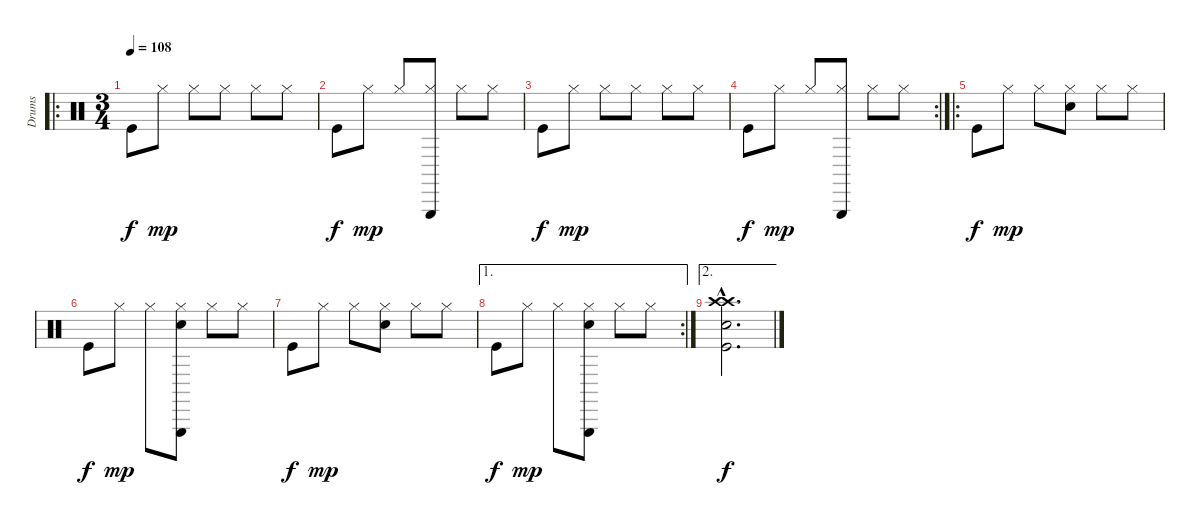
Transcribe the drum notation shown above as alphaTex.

\track ("Drums" "Drums") {instrument percussion}
\staff {score}
\articulation defaults
\ro
\ts (3 4)
\tempo 108
\clef neutral
\ks c "Kick (hit)".8{dy f} "Hi-Hat (closed)".8{dy mp} "Hi-Hat (closed)".8 "Hi-Hat (closed)".8 "Hi-Hat (closed)".8 "Hi-Hat (closed)".8
|
"Kick (hit)".8{dy f} "Hi-Hat (closed)".8{dy mp} "Hi-Hat (closed)".8 ("Hi-Hat (closed)" "Triangle (hit)").8 "Hi-Hat (closed)".8 "Hi-Hat (closed)".8 |
"Kick (hit)".8{dy f} "Hi-Hat (closed)".8{dy mp} "Hi-Hat (closed)".8 "Hi-Hat (closed)".8 "Hi-Hat (closed)".8 "Hi-Hat (closed)".8 |
\rc 2 "Kick (hit)".8{dy f} "Hi-Hat (closed)".8{dy mp} "Hi-Hat (closed)".8
("Hi-Hat (closed)" "Triangle (hit)").8 "Hi-Hat (closed)".8 "Hi-Hat (closed)".8 |
\ro "Kick (hit)".8{dy f} "Hi-Hat (closed)".8{dy mp} "Hi-Hat (closed)".8
("Hi-Hat (closed)" "Snare (hit) 2").8 "Hi-Hat (closed)".8 "Hi-Hat (closed)".8 |
"Kick (hit)".8{dy f} "Hi-Hat (closed)".8{dy mp} "Hi-Hat (closed)".8 ("Hi-Hat (closed)" "Triangle (hit)" "Snare (hit) 2").8 "Hi-Hat (closed)".8 "Hi-Hat (closed)".8 |
"Kick (hit)".8{dy f} "Hi-Hat (closed)".8{dy mp} "Hi-Hat (closed)".8 ("Hi-Hat (closed)" "Snare (hit) 2").8 "Hi-Hat (closed)".8 "Hi-Hat (closed)".8 |
\ae 1
\rc 2 "Kick (hit)".8{dy f} "Hi-Hat (closed)".8{dy mp} "Hi-Hat (closed)".8
("Hi-Hat (closed)" "Triangle (hit)" "Snare (hit) 2").8 "Hi-Hat (closed)".8 "Hi-Hat (closed)".8 |
\ae 2
("Kick (hit)"{hac} "Snare (hit) 2"{hac} "Crash high (hit)"{hac} "Crash high (hit)"{hac}).2{d dy f}
